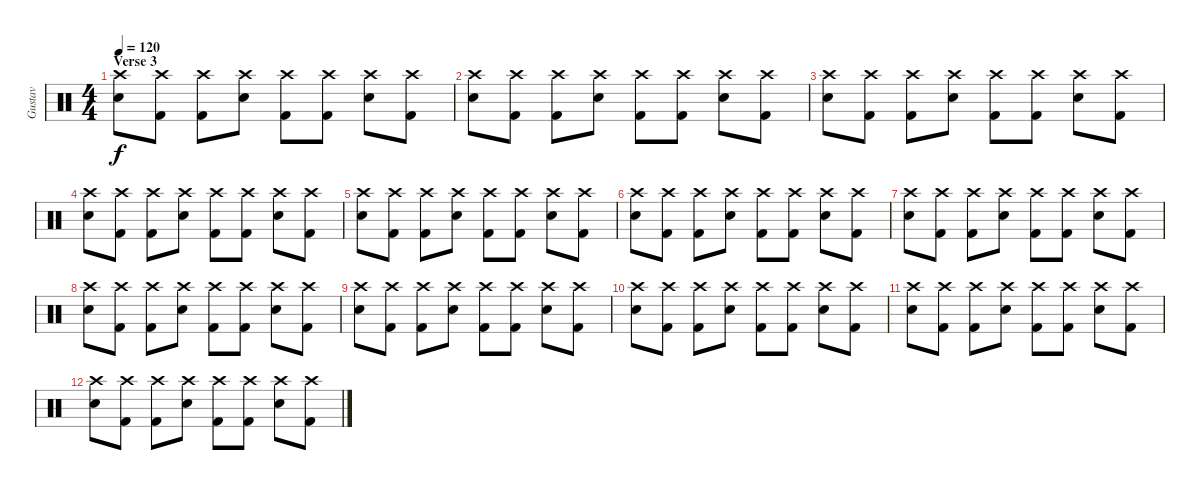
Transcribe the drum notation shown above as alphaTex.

\track ("Gustav" "Gustav") {instrument percussion}
\staff {score}
\articulation defaults
\ts (4 4)
\section ("" "Verse 3")
\tempo 120
\clef neutral
\ks c
("Snare (hit) 2" "Crash high (hit)").8{dy f} ("Kick (hit) 2" "Crash high (hit)").8 ("Crash high (hit)" "Kick (hit) 2").8 ("Snare (hit) 2" "Crash high (hit)").8 ("Kick (hit) 2" "Crash high (hit)").8 ("Kick (hit) 2" "Crash high (hit)").8 ("Snare (hit) 2" "Crash high (hit)").8 ("Crash high (hit)" "Kick (hit) 2").8 |
("Snare (hit) 2" "Crash high (hit)").8 ("Kick (hit) 2" "Crash high (hit)").8 ("Crash high (hit)" "Kick (hit) 2").8 ("Snare (hit) 2" "Crash high (hit)").8 ("Kick (hit) 2" "Crash high (hit)").8 ("Kick (hit) 2" "Crash high (hit)").8 ("Snare (hit) 2" "Crash high (hit)").8 ("Crash high (hit)" "Kick (hit) 2").8 |
("Snare (hit) 2" "Crash high (hit)").8 ("Kick (hit) 2" "Crash high (hit)").8 ("Crash high (hit)" "Kick (hit) 2").8 ("Snare (hit) 2" "Crash high (hit)").8 ("Kick (hit) 2" "Crash high (hit)").8 ("Kick (hit) 2" "Crash high (hit)").8 ("Snare (hit) 2" "Crash high (hit)").8 ("Crash high (hit)" "Kick (hit) 2").8 |
("Snare (hit) 2" "Crash high (hit)").8 ("Kick (hit) 2" "Crash high (hit)").8 ("Crash high (hit)" "Kick (hit) 2").8 ("Snare (hit) 2" "Crash high (hit)").8 ("Kick (hit) 2" "Crash high (hit)").8 ("Kick (hit) 2" "Crash high (hit)").8 ("Snare (hit) 2" "Crash high (hit)").8 ("Crash high (hit)" "Kick (hit) 2").8 |
("Snare (hit) 2" "Crash high (hit)").8 ("Kick (hit) 2" "Crash high (hit)").8 ("Crash high (hit)" "Kick (hit) 2").8 ("Snare (hit) 2" "Crash high (hit)").8 ("Kick (hit) 2" "Crash high (hit)").8 ("Kick (hit) 2" "Crash high (hit)").8 ("Snare (hit) 2" "Crash high (hit)").8 ("Crash high (hit)" "Kick (hit) 2").8 |
("Snare (hit) 2" "Crash high (hit)").8 ("Kick (hit) 2" "Crash high (hit)").8 ("Crash high (hit)" "Kick (hit) 2").8 ("Snare (hit) 2" "Crash high (hit)").8 ("Kick (hit) 2" "Crash high (hit)").8 ("Kick (hit) 2" "Crash high (hit)").8 ("Snare (hit) 2" "Crash high (hit)").8 ("Crash high (hit)" "Kick (hit) 2").8 |
("Snare (hit) 2" "Crash high (hit)").8 ("Kick (hit) 2" "Crash high (hit)").8 ("Crash high (hit)" "Kick (hit) 2").8 ("Snare (hit) 2" "Crash high (hit)").8 ("Kick (hit) 2" "Crash high (hit)").8 ("Kick (hit) 2" "Crash high (hit)").8 ("Snare (hit) 2" "Crash high (hit)").8 ("Crash high (hit)" "Kick (hit) 2").8 |
("Snare (hit) 2" "Crash high (hit)").8 ("Kick (hit) 2" "Crash high (hit)").8 ("Crash high (hit)" "Kick (hit) 2").8 ("Snare (hit) 2" "Crash high (hit)").8 ("Kick (hit) 2" "Crash high (hit)").8 ("Kick (hit) 2" "Crash high (hit)").8 ("Snare (hit) 2" "Crash high (hit)").8 ("Crash high (hit)" "Kick (hit) 2").8 |
("Snare (hit) 2" "Crash high (hit)").8 ("Kick (hit) 2" "Crash high (hit)").8 ("Crash high (hit)" "Kick (hit) 2").8 ("Snare (hit) 2" "Crash high (hit)").8 ("Kick (hit) 2" "Crash high (hit)").8 ("Kick (hit) 2" "Crash high (hit)").8 ("Snare (hit) 2" "Crash high (hit)").8 ("Crash high (hit)" "Kick (hit) 2").8 |
("Snare (hit) 2" "Crash high (hit)").8 ("Kick (hit) 2" "Crash high (hit)").8 ("Crash high (hit)" "Kick (hit) 2").8 ("Snare (hit) 2" "Crash high (hit)").8 ("Kick (hit) 2" "Crash high (hit)").8 ("Kick (hit) 2" "Crash high (hit)").8 ("Snare (hit) 2" "Crash high (hit)").8 ("Crash high (hit)" "Kick (hit) 2").8 |
("Snare (hit) 2" "Crash high (hit)").8 ("Kick (hit) 2" "Crash high (hit)").8 ("Crash high (hit)" "Kick (hit) 2").8 ("Snare (hit) 2" "Crash high (hit)").8 ("Kick (hit) 2" "Crash high (hit)").8 ("Kick (hit) 2" "Crash high (hit)").8 ("Snare (hit) 2" "Crash high (hit)").8 ("Crash high (hit)" "Kick (hit) 2").8 |
("Snare (hit) 2" "Crash high (hit)").8 ("Kick (hit) 2" "Crash high (hit)").8 ("Crash high (hit)" "Kick (hit) 2").8 ("Snare (hit) 2" "Crash high (hit)").8 ("Kick (hit) 2" "Crash high (hit)").8 ("Kick (hit) 2" "Crash high (hit)").8 ("Snare (hit) 2" "Crash high (hit)").8 ("Crash high (hit)" "Kick (hit) 2").8
